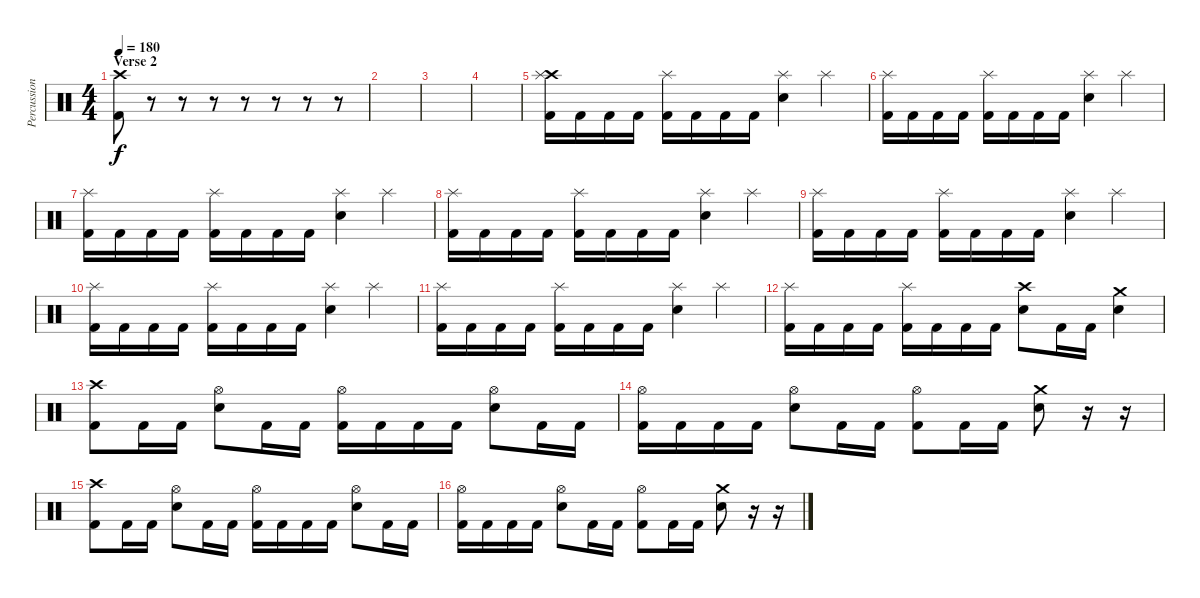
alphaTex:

\track ("Percussion" "Percussion") {instrument percussion}
\staff {score}
\articulation defaults
\ts (4 4)
\section ("" "Verse 2")
\tempo 180
\clef neutral
\ks c
("Crash high (hit)" "Kick (hit) 2").8{dy f} r.8{volume 0} r.8 r.8 r.8 r.8 r.8 r.8 |
|
|
|
("Crash high (hit)" "Splash (hit)" "Kick (hit) 2").16{volume 16} "Kick (hit) 2".16 "Kick (hit) 2".16 "Kick (hit) 2".16 ("Splash (hit)" "Kick (hit) 2").16 "Kick (hit) 2".16 "Kick (hit) 2".16 "Kick (hit) 2".16 ("Splash (hit)" "Electric Snare (hit)").4 "Splash (hit)".4 |
("Splash (hit)" "Kick (hit) 2").16 "Kick (hit) 2".16 "Kick (hit) 2".16 "Kick (hit) 2".16 ("Splash (hit)" "Kick (hit) 2").16 "Kick (hit) 2".16 "Kick (hit) 2".16 "Kick (hit) 2".16 ("Splash (hit)" "Electric Snare (hit)").4 "Splash (hit)".4 |
("Splash (hit)" "Kick (hit) 2").16 "Kick (hit) 2".16 "Kick (hit) 2".16 "Kick (hit) 2".16 ("Splash (hit)" "Kick (hit) 2").16 "Kick (hit) 2".16 "Kick (hit) 2".16 "Kick (hit) 2".16 ("Splash (hit)" "Electric Snare (hit)").4 "Splash (hit)".4 |
("Splash (hit)" "Kick (hit) 2").16 "Kick (hit) 2".16 "Kick (hit) 2".16 "Kick (hit) 2".16 ("Splash (hit)" "Kick (hit) 2").16 "Kick (hit) 2".16 "Kick (hit) 2".16 "Kick (hit) 2".16 ("Splash (hit)" "Electric Snare (hit)").4 "Splash (hit)".4 |
("Splash (hit)" "Kick (hit) 2").16 "Kick (hit) 2".16 "Kick (hit) 2".16 "Kick (hit) 2".16 ("Splash (hit)" "Kick (hit) 2").16 "Kick (hit) 2".16 "Kick (hit) 2".16 "Kick (hit) 2".16 ("Splash (hit)" "Electric Snare (hit)").4 "Splash (hit)".4 |
("Splash (hit)" "Kick (hit) 2").16 "Kick (hit) 2".16 "Kick (hit) 2".16 "Kick (hit) 2".16 ("Splash (hit)" "Kick (hit) 2").16 "Kick (hit) 2".16 "Kick (hit) 2".16 "Kick (hit) 2".16 ("Splash (hit)" "Electric Snare (hit)").4 "Splash (hit)".4 |
("Splash (hit)" "Kick (hit) 2").16 "Kick (hit) 2".16 "Kick (hit) 2".16 "Kick (hit) 2".16 ("Splash (hit)" "Kick (hit) 2").16 "Kick (hit) 2".16 "Kick (hit) 2".16 "Kick (hit) 2".16 ("Splash (hit)" "Electric Snare (hit)").4 "Splash (hit)".4 |
("Splash (hit)" "Kick (hit) 2").16 "Kick (hit) 2".16 "Kick (hit) 2".16 "Kick (hit) 2".16 ("Splash (hit)" "Kick (hit) 2").16 "Kick (hit) 2".16 "Kick (hit) 2".16 "Kick (hit) 2".16 ("Crash high (hit)" "Electric Snare (hit)").8 "Kick (hit) 2".16 "Kick (hit) 2".16 ("Crash medium (hit)" "Electric Snare (hit)").4 |
("Crash high (hit)" "Kick (hit) 2").8 "Kick (hit) 2".16 "Kick (hit) 2".16 ("Hi-Hat (open)" "Electric Snare (hit)").8 "Kick (hit) 2".16 "Kick (hit) 2".16 ("Hi-Hat (open)" "Kick (hit) 2").16 "Kick (hit) 2".16 "Kick (hit) 2".16 "Kick (hit) 2".16 ("Hi-Hat (open)" "Electric Snare (hit)").8 "Kick (hit) 2".16 "Kick (hit) 2".16 |
("Hi-Hat (open)" "Kick (hit) 2").16 "Kick (hit) 2".16 "Kick (hit) 2".16 "Kick (hit) 2".16 ("Hi-Hat (open)" "Electric Snare (hit)").8 "Kick (hit) 2".16 "Kick (hit) 2".16 ("Hi-Hat (open)" "Kick (hit) 2").8 "Kick (hit) 2".16 "Kick (hit) 2".16 ("Crash medium (hit)" "Electric Snare (hit)").8 r.16 r.16 |
("Crash high (hit)" "Kick (hit) 2").8 "Kick (hit) 2".16 "Kick (hit) 2".16 ("Hi-Hat (open)" "Electric Snare (hit)").8 "Kick (hit) 2".16 "Kick (hit) 2".16 ("Hi-Hat (open)" "Kick (hit) 2").16 "Kick (hit) 2".16 "Kick (hit) 2".16 "Kick (hit) 2".16 ("Hi-Hat (open)" "Electric Snare (hit)").8 "Kick (hit) 2".16 "Kick (hit) 2".16 |
("Hi-Hat (open)" "Kick (hit) 2").16 "Kick (hit) 2".16 "Kick (hit) 2".16 "Kick (hit) 2".16 ("Hi-Hat (open)" "Electric Snare (hit)").8 "Kick (hit) 2".16 "Kick (hit) 2".16 ("Hi-Hat (open)" "Kick (hit) 2").8 "Kick (hit) 2".16 "Kick (hit) 2".16 ("Crash medium (hit)" "Electric Snare (hit)").8 r.16 r.16
